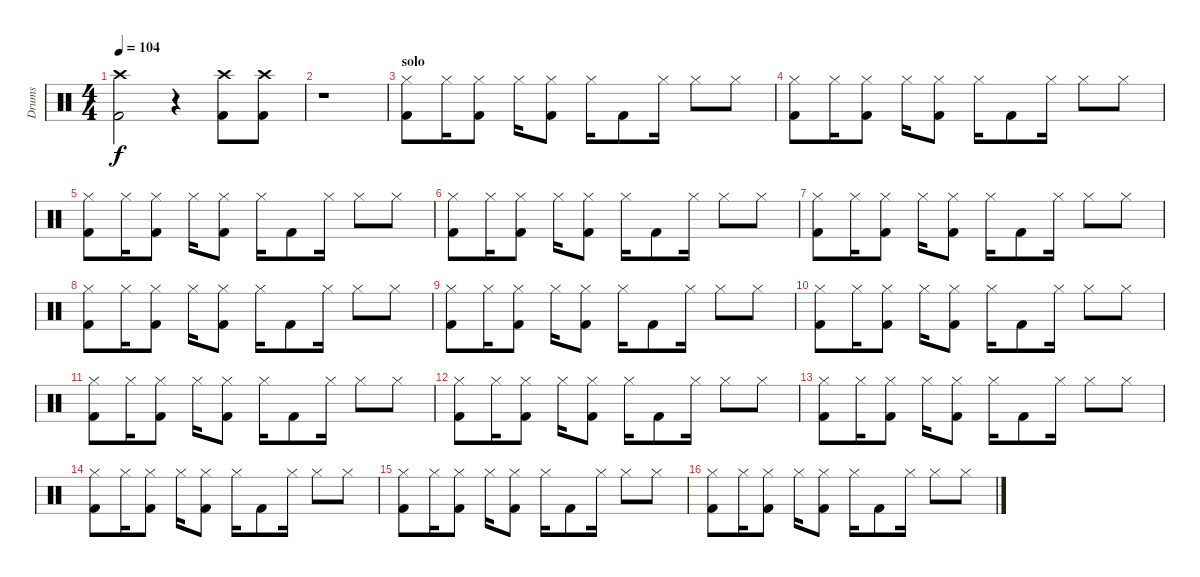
\track ("Drums" "Drums") {instrument percussion}
\staff {score}
\articulation defaults
\ts (4 4)
\tempo 104
\clef neutral
\ks c
("Kick (hit) 2" "Crash high (hit)").2{dy f} r.4 ("Kick (hit) 2" "Crash high (hit)").8 ("Kick (hit) 2" "Crash high (hit)").8 |
r.1 |
\section ("" "solo")
("Kick (hit) 2" "Hi-Hat (closed)").8 "Hi-Hat (closed)".16 ("Kick (hit) 2" "Hi-Hat (closed)").8 "Hi-Hat (closed)".16 ("Kick (hit) 2" "Hi-Hat (closed)").8 "Hi-Hat (closed)".16 "Kick (hit) 2".8 "Hi-Hat (closed)".16 "Hi-Hat (closed)".8 "Hi-Hat (closed)".8 |
("Kick (hit) 2" "Hi-Hat (closed)").8 "Hi-Hat (closed)".16 ("Kick (hit) 2" "Hi-Hat (closed)").8 "Hi-Hat (closed)".16 ("Kick (hit) 2" "Hi-Hat (closed)").8 "Hi-Hat (closed)".16 "Kick (hit) 2".8 "Hi-Hat (closed)".16 "Hi-Hat (closed)".8 "Hi-Hat (closed)".8 |
("Kick (hit) 2" "Hi-Hat (closed)").8 "Hi-Hat (closed)".16 ("Kick (hit) 2" "Hi-Hat (closed)").8 "Hi-Hat (closed)".16 ("Kick (hit) 2" "Hi-Hat (closed)").8 "Hi-Hat (closed)".16 "Kick (hit) 2".8 "Hi-Hat (closed)".16 "Hi-Hat (closed)".8 "Hi-Hat (closed)".8 |
("Kick (hit) 2" "Hi-Hat (closed)").8 "Hi-Hat (closed)".16 ("Kick (hit) 2" "Hi-Hat (closed)").8 "Hi-Hat (closed)".16 ("Kick (hit) 2" "Hi-Hat (closed)").8 "Hi-Hat (closed)".16 "Kick (hit) 2".8 "Hi-Hat (closed)".16 "Hi-Hat (closed)".8 "Hi-Hat (closed)".8 |
("Kick (hit) 2" "Hi-Hat (closed)").8 "Hi-Hat (closed)".16 ("Kick (hit) 2" "Hi-Hat (closed)").8 "Hi-Hat (closed)".16 ("Kick (hit) 2" "Hi-Hat (closed)").8 "Hi-Hat (closed)".16 "Kick (hit) 2".8 "Hi-Hat (closed)".16 "Hi-Hat (closed)".8 "Hi-Hat (closed)".8 |
("Kick (hit) 2" "Hi-Hat (closed)").8 "Hi-Hat (closed)".16 ("Kick (hit) 2" "Hi-Hat (closed)").8 "Hi-Hat (closed)".16 ("Kick (hit) 2" "Hi-Hat (closed)").8 "Hi-Hat (closed)".16 "Kick (hit) 2".8 "Hi-Hat (closed)".16 "Hi-Hat (closed)".8 "Hi-Hat (closed)".8 |
("Kick (hit) 2" "Hi-Hat (closed)").8 "Hi-Hat (closed)".16 ("Kick (hit) 2" "Hi-Hat (closed)").8 "Hi-Hat (closed)".16 ("Kick (hit) 2" "Hi-Hat (closed)").8 "Hi-Hat (closed)".16 "Kick (hit) 2".8 "Hi-Hat (closed)".16 "Hi-Hat (closed)".8 "Hi-Hat (closed)".8 |
("Kick (hit) 2" "Hi-Hat (closed)").8 "Hi-Hat (closed)".16 ("Kick (hit) 2" "Hi-Hat (closed)").8 "Hi-Hat (closed)".16 ("Kick (hit) 2" "Hi-Hat (closed)").8 "Hi-Hat (closed)".16 "Kick (hit) 2".8 "Hi-Hat (closed)".16 "Hi-Hat (closed)".8 "Hi-Hat (closed)".8 |
("Kick (hit) 2" "Hi-Hat (closed)").8 "Hi-Hat (closed)".16 ("Kick (hit) 2" "Hi-Hat (closed)").8 "Hi-Hat (closed)".16 ("Kick (hit) 2" "Hi-Hat (closed)").8 "Hi-Hat (closed)".16 "Kick (hit) 2".8 "Hi-Hat (closed)".16 "Hi-Hat (closed)".8 "Hi-Hat (closed)".8 |
("Kick (hit) 2" "Hi-Hat (closed)").8 "Hi-Hat (closed)".16 ("Kick (hit) 2" "Hi-Hat (closed)").8 "Hi-Hat (closed)".16 ("Kick (hit) 2" "Hi-Hat (closed)").8 "Hi-Hat (closed)".16 "Kick (hit) 2".8 "Hi-Hat (closed)".16 "Hi-Hat (closed)".8 "Hi-Hat (closed)".8 |
("Kick (hit) 2" "Hi-Hat (closed)").8 "Hi-Hat (closed)".16 ("Kick (hit) 2" "Hi-Hat (closed)").8 "Hi-Hat (closed)".16 ("Kick (hit) 2" "Hi-Hat (closed)").8 "Hi-Hat (closed)".16 "Kick (hit) 2".8 "Hi-Hat (closed)".16 "Hi-Hat (closed)".8 "Hi-Hat (closed)".8 |
("Kick (hit) 2" "Hi-Hat (closed)").8 "Hi-Hat (closed)".16 ("Kick (hit) 2" "Hi-Hat (closed)").8 "Hi-Hat (closed)".16 ("Kick (hit) 2" "Hi-Hat (closed)").8 "Hi-Hat (closed)".16 "Kick (hit) 2".8 "Hi-Hat (closed)".16 "Hi-Hat (closed)".8 "Hi-Hat (closed)".8 |
("Kick (hit) 2" "Hi-Hat (closed)").8 "Hi-Hat (closed)".16 ("Kick (hit) 2" "Hi-Hat (closed)").8 "Hi-Hat (closed)".16 ("Kick (hit) 2" "Hi-Hat (closed)").8 "Hi-Hat (closed)".16 "Kick (hit) 2".8 "Hi-Hat (closed)".16 "Hi-Hat (closed)".8 "Hi-Hat (closed)".8 |
("Kick (hit) 2" "Hi-Hat (closed)").8 "Hi-Hat (closed)".16 ("Kick (hit) 2" "Hi-Hat (closed)").8 "Hi-Hat (closed)".16 ("Kick (hit) 2" "Hi-Hat (closed)").8 "Hi-Hat (closed)".16 "Kick (hit) 2".8 "Hi-Hat (closed)".16 "Hi-Hat (closed)".8 "Hi-Hat (closed)".8
